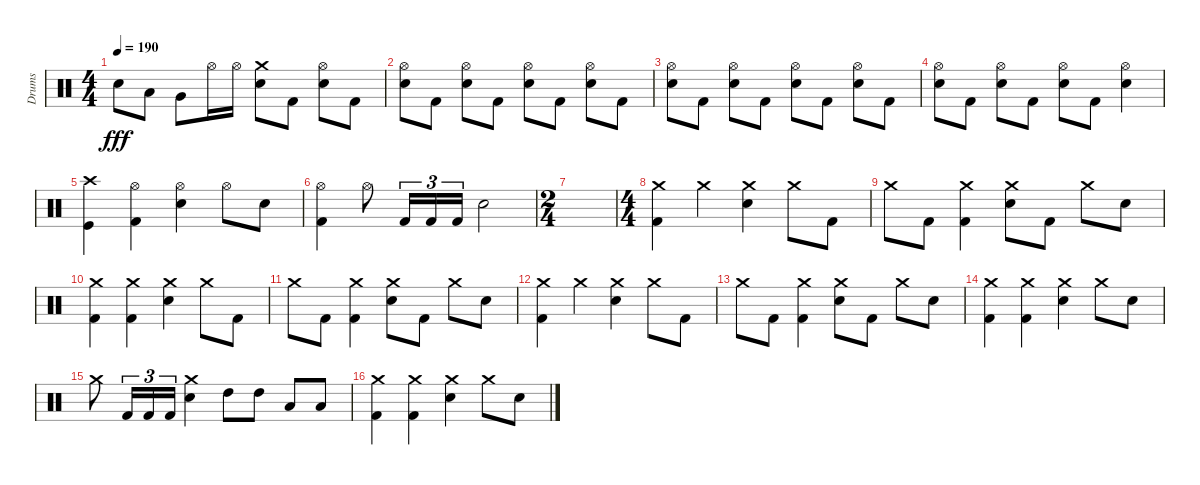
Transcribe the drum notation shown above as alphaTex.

\track ("Drums" "Drums") {instrument percussion}
\staff {score}
\articulation defaults
\ts (4 4)
\tempo 190
\clef neutral
\ks c "Electric Snare (hit)".8{dy fff} "Low Tom (hit)".8 "Very Low Tom (hit)".8 "Hi-Hat (open)".16 "Hi-Hat (open)".16
("Electric Snare (hit)" "Crash medium (hit)").8 "Kick (hit) 2".8 ("Hi-Hat (open)" "Electric Snare (hit)").8 "Kick (hit) 2".8 |
("Hi-Hat (open)" "Electric Snare (hit)").8 "Kick (hit) 2".8 ("Hi-Hat (open)" "Electric Snare (hit)").8 "Kick (hit) 2".8 ("Hi-Hat (open)" "Electric Snare (hit)").8 "Kick (hit) 2".8 ("Hi-Hat (open)" "Electric Snare (hit)").8 "Kick (hit) 2".8 |
("Hi-Hat (open)" "Electric Snare (hit)").8 "Kick (hit) 2".8 ("Hi-Hat (open)" "Electric Snare (hit)").8 "Kick (hit) 2".8 ("Hi-Hat (open)" "Electric Snare (hit)").8 "Kick (hit) 2".8 ("Hi-Hat (open)" "Electric Snare (hit)").8 "Kick (hit) 2".8 |
("Hi-Hat (open)" "Electric Snare (hit)").8 "Kick (hit) 2".8 ("Hi-Hat (open)" "Electric Snare (hit)").8 "Kick (hit) 2".8 ("Hi-Hat (open)" "Electric Snare (hit)").8 "Kick (hit) 2".8 ("Hi-Hat (open)" "Electric Snare (hit)").4 |
("Crash high (hit)" "Kick (hit)").4 ("Kick (hit) 2" "Hi-Hat (open)").4 ("Hi-Hat (open)" "Electric Snare (hit)").4 "Hi-Hat (open)".8 "Electric Snare (hit)".8 |
("Hi-Hat (open)" "Kick (hit) 2").4 "Hi-Hat (open)".8 "Kick (hit) 2".16{tu (3 2)} "Kick (hit) 2".16{tu (3 2)} "Kick (hit) 2".16{tu (3 2)} "Electric Snare (hit)".2 |
\ts (2 4)
|
\ts (4 4)
("Kick (hit) 2" "Crash medium (hit)").4 "Crash medium (hit)".4 ("Crash medium (hit)" "Electric Snare (hit)").4 "Crash medium (hit)".8 "Kick (hit) 2".8 |
"Crash medium (hit)".8 "Kick (hit) 2".8 ("Crash medium (hit)" "Kick (hit) 2").4 ("Electric Snare (hit)" "Crash medium (hit)").8 "Kick (hit) 2".8 "Crash medium (hit)".8 "Electric Snare (hit)".8 |
("Kick (hit) 2" "Crash medium (hit)").4 ("Kick (hit) 2" "Crash medium (hit)").4 ("Electric Snare (hit)" "Crash medium (hit)").4 "Crash medium (hit)".8 "Kick (hit) 2".8 |
"Crash medium (hit)".8 "Kick (hit) 2".8 ("Crash medium (hit)" "Kick (hit) 2").4 ("Electric Snare (hit)" "Crash medium (hit)").8 "Kick (hit) 2".8 "Crash medium (hit)".8 "Electric Snare (hit)".8 |
("Kick (hit) 2" "Crash medium (hit)").4 "Crash medium (hit)".4 ("Crash medium (hit)" "Electric Snare (hit)").4 "Crash medium (hit)".8 "Kick (hit) 2".8 |
"Crash medium (hit)".8 "Kick (hit) 2".8 ("Crash medium (hit)" "Kick (hit) 2").4 ("Electric Snare (hit)" "Crash medium (hit)").8 "Kick (hit) 2".8 "Crash medium (hit)".8 "Electric Snare (hit)".8 |
("Kick (hit) 2" "Crash medium (hit)").4 ("Kick (hit) 2" "Crash medium (hit)").4 ("Electric Snare (hit)" "Crash medium (hit)").4 "Crash medium (hit)".8 "Electric Snare (hit)".8 |
"Crash medium (hit)".8 "Kick (hit) 2".16{tu (3 2)} "Kick (hit) 2".16{tu (3 2)} "Kick (hit) 2".16{tu (3 2)} ("Electric Snare (hit)" "Crash medium (hit)").4 "High Tom (hit)".8 "High Tom (hit)".8 "Low Tom (hit)".8 "Low Tom (hit)".8 |
("Kick (hit) 2" "Crash medium (hit)").4 ("Kick (hit) 2" "Crash medium (hit)").4 ("Electric Snare (hit)" "Crash medium (hit)").4 "Crash medium (hit)".8 "Electric Snare (hit)".8
